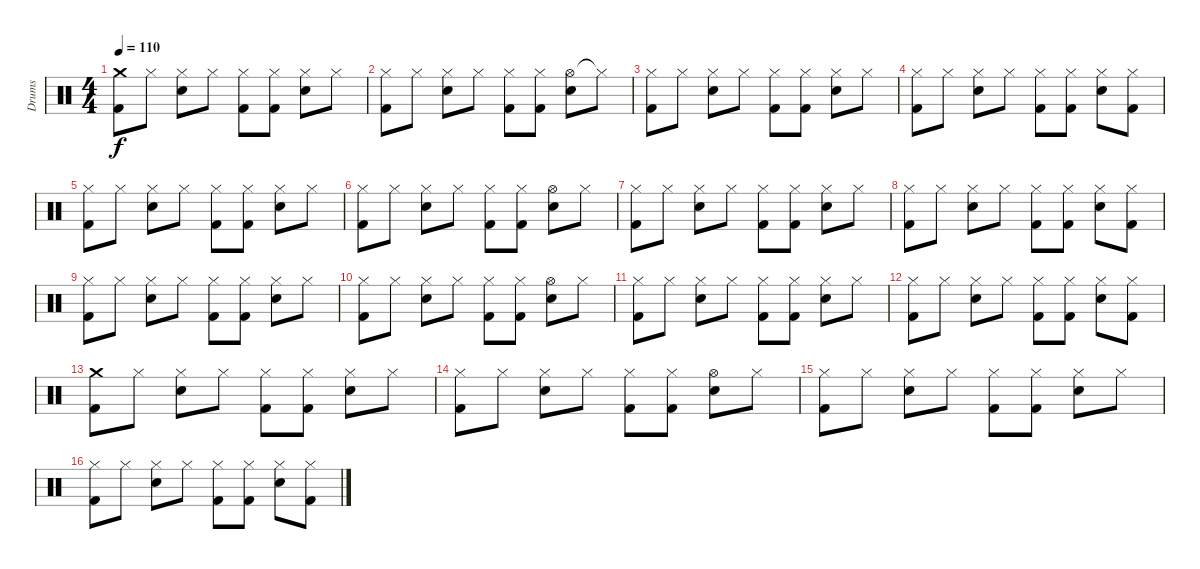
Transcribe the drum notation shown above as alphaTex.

\track ("Drums" "Drums") {instrument percussion}
\staff {score}
\articulation defaults
\ts (4 4)
\tempo 110
\clef neutral
\ks aminor
("Crash medium (hit)" "Kick (hit) 2").8{dy f} "Hi-Hat (closed)".8 ("Hi-Hat (closed)" "Electric Snare (hit)").8 "Hi-Hat (closed)".8 ("Hi-Hat (closed)" "Kick (hit) 2").8 ("Hi-Hat (closed)" "Kick (hit) 2").8 ("Hi-Hat (closed)" "Electric Snare (hit)").8 "Hi-Hat (closed)".8 |
("Hi-Hat (closed)" "Kick (hit) 2").8 "Hi-Hat (closed)".8 ("Hi-Hat (closed)" "Electric Snare (hit)").8 "Hi-Hat (closed)".8 ("Hi-Hat (closed)" "Kick (hit) 2").8 ("Hi-Hat (closed)" "Kick (hit) 2").8 ("Hi-Hat (open)" "Electric Snare (hit)").8 "Hi-Hat (closed)"{t}.8 |
("Hi-Hat (closed)" "Kick (hit) 2").8 "Hi-Hat (closed)".8 ("Hi-Hat (closed)" "Electric Snare (hit)").8 "Hi-Hat (closed)".8 ("Hi-Hat (closed)" "Kick (hit) 2").8 ("Hi-Hat (closed)" "Kick (hit) 2").8 ("Hi-Hat (closed)" "Electric Snare (hit)").8 "Hi-Hat (closed)".8 |
("Hi-Hat (closed)" "Kick (hit) 2").8 "Hi-Hat (closed)".8 ("Hi-Hat (closed)" "Electric Snare (hit)").8 "Hi-Hat (closed)".8 ("Hi-Hat (closed)" "Kick (hit) 2").8 ("Hi-Hat (closed)" "Kick (hit) 2").8 ("Hi-Hat (closed)" "Electric Snare (hit)").8 ("Hi-Hat (closed)" "Kick (hit) 2").8 |
("Hi-Hat (closed)" "Kick (hit) 2").8 "Hi-Hat (closed)".8 ("Hi-Hat (closed)" "Electric Snare (hit)").8 "Hi-Hat (closed)".8 ("Hi-Hat (closed)" "Kick (hit) 2").8 ("Hi-Hat (closed)" "Kick (hit) 2").8 ("Hi-Hat (closed)" "Electric Snare (hit)").8 "Hi-Hat (closed)".8 |
("Hi-Hat (closed)" "Kick (hit) 2").8 "Hi-Hat (closed)".8 ("Hi-Hat (closed)" "Electric Snare (hit)").8 "Hi-Hat (closed)".8 ("Hi-Hat (closed)" "Kick (hit) 2").8 ("Hi-Hat (closed)" "Kick (hit) 2").8 ("Hi-Hat (open)" "Electric Snare (hit)").8 "Hi-Hat (closed)".8 |
("Hi-Hat (closed)" "Kick (hit) 2").8 "Hi-Hat (closed)".8 ("Hi-Hat (closed)" "Electric Snare (hit)").8 "Hi-Hat (closed)".8 ("Hi-Hat (closed)" "Kick (hit) 2").8 ("Hi-Hat (closed)" "Kick (hit) 2").8 ("Hi-Hat (closed)" "Electric Snare (hit)").8 "Hi-Hat (closed)".8 |
("Hi-Hat (closed)" "Kick (hit) 2").8 "Hi-Hat (closed)".8 ("Hi-Hat (closed)" "Electric Snare (hit)").8 "Hi-Hat (closed)".8 ("Hi-Hat (closed)" "Kick (hit) 2").8 ("Hi-Hat (closed)" "Kick (hit) 2").8 ("Hi-Hat (closed)" "Electric Snare (hit)").8 ("Hi-Hat (closed)" "Kick (hit) 2").8 |
("Hi-Hat (closed)" "Kick (hit) 2").8 "Hi-Hat (closed)".8 ("Hi-Hat (closed)" "Electric Snare (hit)").8 "Hi-Hat (closed)".8 ("Hi-Hat (closed)" "Kick (hit) 2").8 ("Hi-Hat (closed)" "Kick (hit) 2").8 ("Hi-Hat (closed)" "Electric Snare (hit)").8 "Hi-Hat (closed)".8 |
("Hi-Hat (closed)" "Kick (hit) 2").8 "Hi-Hat (closed)".8 ("Hi-Hat (closed)" "Electric Snare (hit)").8 "Hi-Hat (closed)".8 ("Hi-Hat (closed)" "Kick (hit) 2").8 ("Hi-Hat (closed)" "Kick (hit) 2").8 ("Hi-Hat (open)" "Electric Snare (hit)").8 "Hi-Hat (closed)".8 |
("Hi-Hat (closed)" "Kick (hit) 2").8 "Hi-Hat (closed)".8 ("Hi-Hat (closed)" "Electric Snare (hit)").8 "Hi-Hat (closed)".8 ("Hi-Hat (closed)" "Kick (hit) 2").8 ("Hi-Hat (closed)" "Kick (hit) 2").8 ("Hi-Hat (closed)" "Electric Snare (hit)").8 "Hi-Hat (closed)".8 |
("Hi-Hat (closed)" "Kick (hit) 2").8 "Hi-Hat (closed)".8 ("Hi-Hat (closed)" "Electric Snare (hit)").8 "Hi-Hat (closed)".8 ("Hi-Hat (closed)" "Kick (hit) 2").8 ("Hi-Hat (closed)" "Kick (hit) 2").8 ("Hi-Hat (closed)" "Electric Snare (hit)").8 ("Hi-Hat (closed)" "Kick (hit) 2").8 |
("Crash medium (hit)" "Kick (hit) 2").8 "Hi-Hat (closed)".8 ("Hi-Hat (closed)" "Electric Snare (hit)").8 "Hi-Hat (closed)".8 ("Hi-Hat (closed)" "Kick (hit) 2").8 ("Hi-Hat (closed)" "Kick (hit) 2").8 ("Hi-Hat (closed)" "Electric Snare (hit)").8 "Hi-Hat (closed)".8 |
("Hi-Hat (closed)" "Kick (hit) 2").8 "Hi-Hat (closed)".8 ("Hi-Hat (closed)" "Electric Snare (hit)").8 "Hi-Hat (closed)".8 ("Hi-Hat (closed)" "Kick (hit) 2").8 ("Hi-Hat (closed)" "Kick (hit) 2").8 ("Hi-Hat (open)" "Electric Snare (hit)").8 "Hi-Hat (closed)".8 |
("Hi-Hat (closed)" "Kick (hit) 2").8 "Hi-Hat (closed)".8 ("Hi-Hat (closed)" "Electric Snare (hit)").8 "Hi-Hat (closed)".8 ("Hi-Hat (closed)" "Kick (hit) 2").8 ("Hi-Hat (closed)" "Kick (hit) 2").8 ("Hi-Hat (closed)" "Electric Snare (hit)").8 "Hi-Hat (closed)".8 |
("Hi-Hat (closed)" "Kick (hit) 2").8 "Hi-Hat (closed)".8 ("Hi-Hat (closed)" "Electric Snare (hit)").8 "Hi-Hat (closed)".8 ("Hi-Hat (closed)" "Kick (hit) 2").8 ("Hi-Hat (closed)" "Kick (hit) 2").8 ("Hi-Hat (closed)" "Electric Snare (hit)").8 ("Hi-Hat (closed)" "Kick (hit) 2").8
